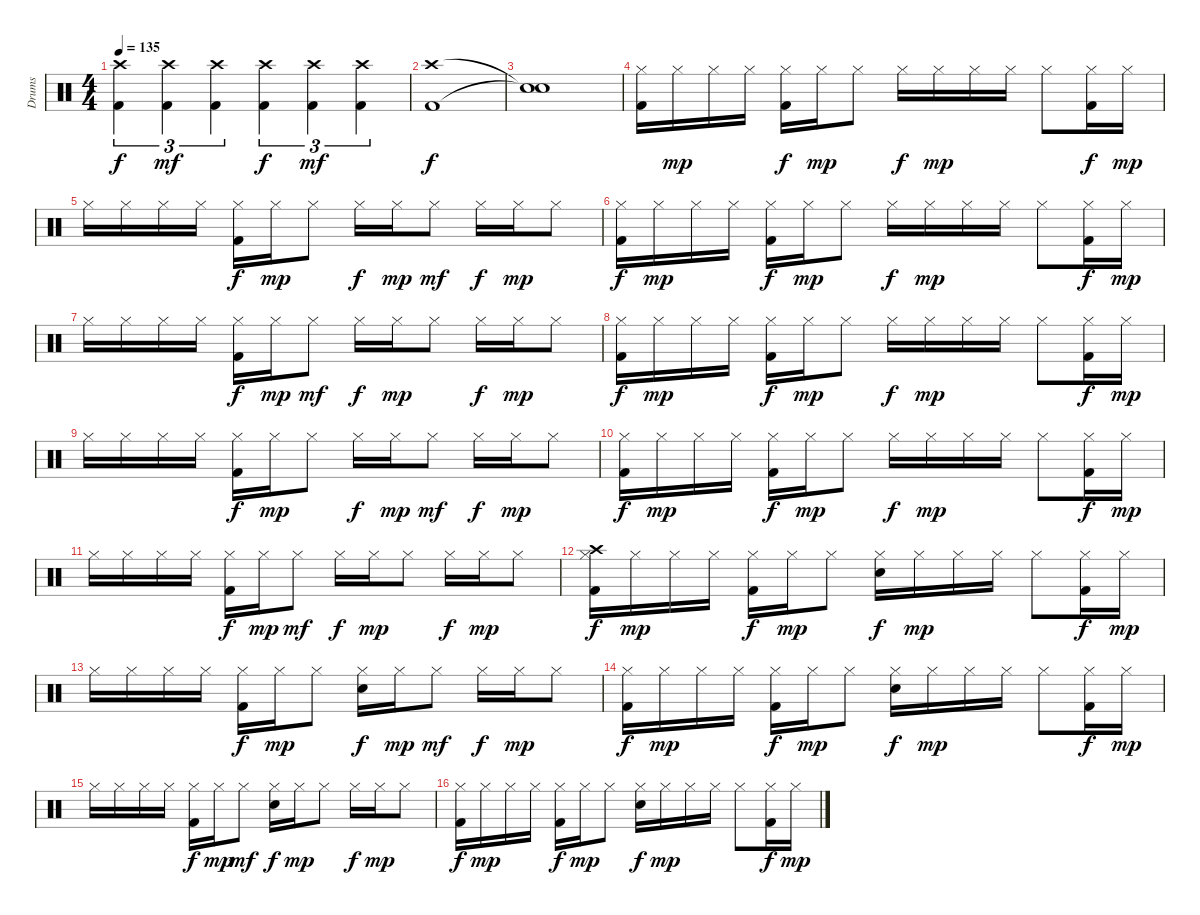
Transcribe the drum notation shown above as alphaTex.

\track ("Drums" "Drums") {instrument percussion}
\staff {score}
\articulation defaults
\ts (4 4)
\tempo 135
\clef neutral
\ks c
("Kick (hit) 2" "Crash high (hit)").4{tu (3 2) dy f} ("Kick (hit) 2" "Crash high (hit)").4{tu (3 2) dy mf} ("Kick (hit) 2" "Crash high (hit)").4{tu (3 2)} ("Kick (hit) 2" "Crash high (hit)").4{tu (3 2) dy f} ("Kick (hit) 2" "Crash high (hit)").4{tu (3 2) dy mf} ("Kick (hit) 2" "Crash high (hit)").4{tu (3 2)} |
("Kick (hit) 2" "Crash high (hit)").1{dy f} |
("Snare (hit)"{t} "Snare (hit)"{t}).1 |
("Kick (hit) 2" "Hi-Hat (closed)").16 "Hi-Hat (closed)".16{dy mp} "Hi-Hat (closed)".16 "Hi-Hat (closed)".16 ("Kick (hit) 2" "Hi-Hat (closed)").16{dy f} "Hi-Hat (closed)".16{dy mp} "Hi-Hat (closed)".8 "Hi-Hat (closed)".16{dy f} "Hi-Hat (closed)".16{dy mp} "Hi-Hat (closed)".16 "Hi-Hat (closed)".16 "Hi-Hat (closed)".8 ("Kick (hit) 2" "Hi-Hat (closed)").16{dy f} "Hi-Hat (closed)".16{dy mp} |
"Hi-Hat (closed)".16 "Hi-Hat (closed)".16 "Hi-Hat (closed)".16 "Hi-Hat (closed)".16 ("Kick (hit) 2" "Hi-Hat (closed)").16{dy f} "Hi-Hat (closed)".16{dy mp} "Hi-Hat (closed)".8 "Hi-Hat (closed)".16{dy f} "Hi-Hat (closed)".16{dy mp} "Hi-Hat (closed)".8{dy mf} "Hi-Hat (closed)".16{dy f} "Hi-Hat (closed)".16{dy mp} "Hi-Hat (closed)".8 |
("Kick (hit) 2" "Hi-Hat (closed)").16{dy f} "Hi-Hat (closed)".16{dy mp} "Hi-Hat (closed)".16 "Hi-Hat (closed)".16 ("Kick (hit) 2" "Hi-Hat (closed)").16{dy f} "Hi-Hat (closed)".16{dy mp} "Hi-Hat (closed)".8 "Hi-Hat (closed)".16{dy f} "Hi-Hat (closed)".16{dy mp} "Hi-Hat (closed)".16 "Hi-Hat (closed)".16 "Hi-Hat (closed)".8 ("Kick (hit) 2" "Hi-Hat (closed)").16{dy f} "Hi-Hat (closed)".16{dy mp} |
"Hi-Hat (closed)".16 "Hi-Hat (closed)".16 "Hi-Hat (closed)".16 "Hi-Hat (closed)".16 ("Kick (hit) 2" "Hi-Hat (closed)").16{dy f} "Hi-Hat (closed)".16{dy mp} "Hi-Hat (closed)".8{dy mf} "Hi-Hat (closed)".16{dy f} "Hi-Hat (closed)".16{dy mp} "Hi-Hat (closed)".8 "Hi-Hat (closed)".16{dy f} "Hi-Hat (closed)".16{dy mp} "Hi-Hat (closed)".8 |
("Kick (hit) 2" "Hi-Hat (closed)").16{dy f} "Hi-Hat (closed)".16{dy mp} "Hi-Hat (closed)".16 "Hi-Hat (closed)".16 ("Kick (hit) 2" "Hi-Hat (closed)").16{dy f} "Hi-Hat (closed)".16{dy mp} "Hi-Hat (closed)".8 "Hi-Hat (closed)".16{dy f} "Hi-Hat (closed)".16{dy mp} "Hi-Hat (closed)".16 "Hi-Hat (closed)".16 "Hi-Hat (closed)".8 ("Kick (hit) 2" "Hi-Hat (closed)").16{dy f} "Hi-Hat (closed)".16{dy mp} |
"Hi-Hat (closed)".16 "Hi-Hat (closed)".16 "Hi-Hat (closed)".16 "Hi-Hat (closed)".16 ("Kick (hit) 2" "Hi-Hat (closed)").16{dy f} "Hi-Hat (closed)".16{dy mp} "Hi-Hat (closed)".8 "Hi-Hat (closed)".16{dy f} "Hi-Hat (closed)".16{dy mp} "Hi-Hat (closed)".8{dy mf} "Hi-Hat (closed)".16{dy f} "Hi-Hat (closed)".16{dy mp} "Hi-Hat (closed)".8 |
("Kick (hit) 2" "Hi-Hat (closed)").16{dy f} "Hi-Hat (closed)".16{dy mp} "Hi-Hat (closed)".16 "Hi-Hat (closed)".16 ("Kick (hit) 2" "Hi-Hat (closed)").16{dy f} "Hi-Hat (closed)".16{dy mp} "Hi-Hat (closed)".8 "Hi-Hat (closed)".16{dy f} "Hi-Hat (closed)".16{dy mp} "Hi-Hat (closed)".16 "Hi-Hat (closed)".16 "Hi-Hat (closed)".8 ("Kick (hit) 2" "Hi-Hat (closed)").16{dy f} "Hi-Hat (closed)".16{dy mp} |
"Hi-Hat (closed)".16 "Hi-Hat (closed)".16 "Hi-Hat (closed)".16 "Hi-Hat (closed)".16 ("Kick (hit) 2" "Hi-Hat (closed)").16{dy f} "Hi-Hat (closed)".16{dy mp} "Hi-Hat (closed)".8{dy mf} "Hi-Hat (closed)".16{dy f} "Hi-Hat (closed)".16{dy mp} "Hi-Hat (closed)".8 "Hi-Hat (closed)".16{dy f} "Hi-Hat (closed)".16{dy mp} "Hi-Hat (closed)".8 |
("Kick (hit) 2" "Hi-Hat (closed)" "Crash high (hit)").16{dy f} "Hi-Hat (closed)".16{dy mp} "Hi-Hat (closed)".16 "Hi-Hat (closed)".16 ("Kick (hit) 2" "Hi-Hat (closed)").16{dy f} "Hi-Hat (closed)".16{dy mp} "Hi-Hat (closed)".8 ("Electric Snare (hit)" "Hi-Hat (closed)").16{dy f} "Hi-Hat (closed)".16{dy mp} "Hi-Hat (closed)".16 "Hi-Hat (closed)".16 "Hi-Hat (closed)".8 ("Kick (hit) 2" "Hi-Hat (closed)").16{dy f} "Hi-Hat (closed)".16{dy mp} |
"Hi-Hat (closed)".16 "Hi-Hat (closed)".16 "Hi-Hat (closed)".16 "Hi-Hat (closed)".16 ("Kick (hit) 2" "Hi-Hat (closed)").16{dy f} "Hi-Hat (closed)".16{dy mp} "Hi-Hat (closed)".8 ("Electric Snare (hit)" "Hi-Hat (closed)").16{dy f} "Hi-Hat (closed)".16{dy mp} "Hi-Hat (closed)".8{dy mf} "Hi-Hat (closed)".16{dy f} "Hi-Hat (closed)".16{dy mp} "Hi-Hat (closed)".8 |
("Kick (hit) 2" "Hi-Hat (closed)").16{dy f} "Hi-Hat (closed)".16{dy mp} "Hi-Hat (closed)".16 "Hi-Hat (closed)".16 ("Kick (hit) 2" "Hi-Hat (closed)").16{dy f} "Hi-Hat (closed)".16{dy mp} "Hi-Hat (closed)".8 ("Electric Snare (hit)" "Hi-Hat (closed)").16{dy f} "Hi-Hat (closed)".16{dy mp} "Hi-Hat (closed)".16 "Hi-Hat (closed)".16 "Hi-Hat (closed)".8 ("Kick (hit) 2" "Hi-Hat (closed)").16{dy f} "Hi-Hat (closed)".16{dy mp} |
"Hi-Hat (closed)".16 "Hi-Hat (closed)".16 "Hi-Hat (closed)".16 "Hi-Hat (closed)".16 ("Kick (hit) 2" "Hi-Hat (closed)").16{dy f} "Hi-Hat (closed)".16{dy mp} "Hi-Hat (closed)".8{dy mf} ("Electric Snare (hit)" "Hi-Hat (closed)").16{dy f} "Hi-Hat (closed)".16{dy mp} "Hi-Hat (closed)".8 "Hi-Hat (closed)".16{dy f} "Hi-Hat (closed)".16{dy mp} "Hi-Hat (closed)".8 |
("Kick (hit) 2" "Hi-Hat (closed)").16{dy f} "Hi-Hat (closed)".16{dy mp} "Hi-Hat (closed)".16 "Hi-Hat (closed)".16 ("Kick (hit) 2" "Hi-Hat (closed)").16{dy f} "Hi-Hat (closed)".16{dy mp} "Hi-Hat (closed)".8 ("Electric Snare (hit)" "Hi-Hat (closed)").16{dy f} "Hi-Hat (closed)".16{dy mp} "Hi-Hat (closed)".16 "Hi-Hat (closed)".16 "Hi-Hat (closed)".8 ("Kick (hit) 2" "Hi-Hat (closed)").16{dy f} "Hi-Hat (closed)".16{dy mp}
